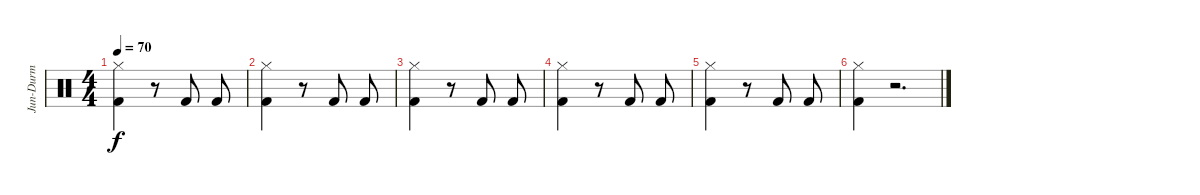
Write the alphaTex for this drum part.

\track ("Jun-Durm" "Jun-Durm") {instrument percussion}
\staff {score}
\articulation defaults
\ts (4 4)
\tempo 70
\clef neutral
\ks c
("Hi-Hat (closed)" "Kick (hit) 2").4{dy f} r.8 "Kick (hit) 2".8 "Kick (hit) 2".8 |
("Hi-Hat (closed)" "Kick (hit) 2").4 r.8 "Kick (hit) 2".8 "Kick (hit) 2".8 |
("Hi-Hat (closed)" "Kick (hit) 2").4 r.8 "Kick (hit) 2".8 "Kick (hit) 2".8 |
("Hi-Hat (closed)" "Kick (hit) 2").4 r.8 "Kick (hit) 2".8 "Kick (hit) 2".8 |
("Hi-Hat (closed)" "Kick (hit) 2").4 r.8 "Kick (hit) 2".8 "Kick (hit) 2".8 |
("Hi-Hat (closed)" "Kick (hit) 2").4 r.2{d}
